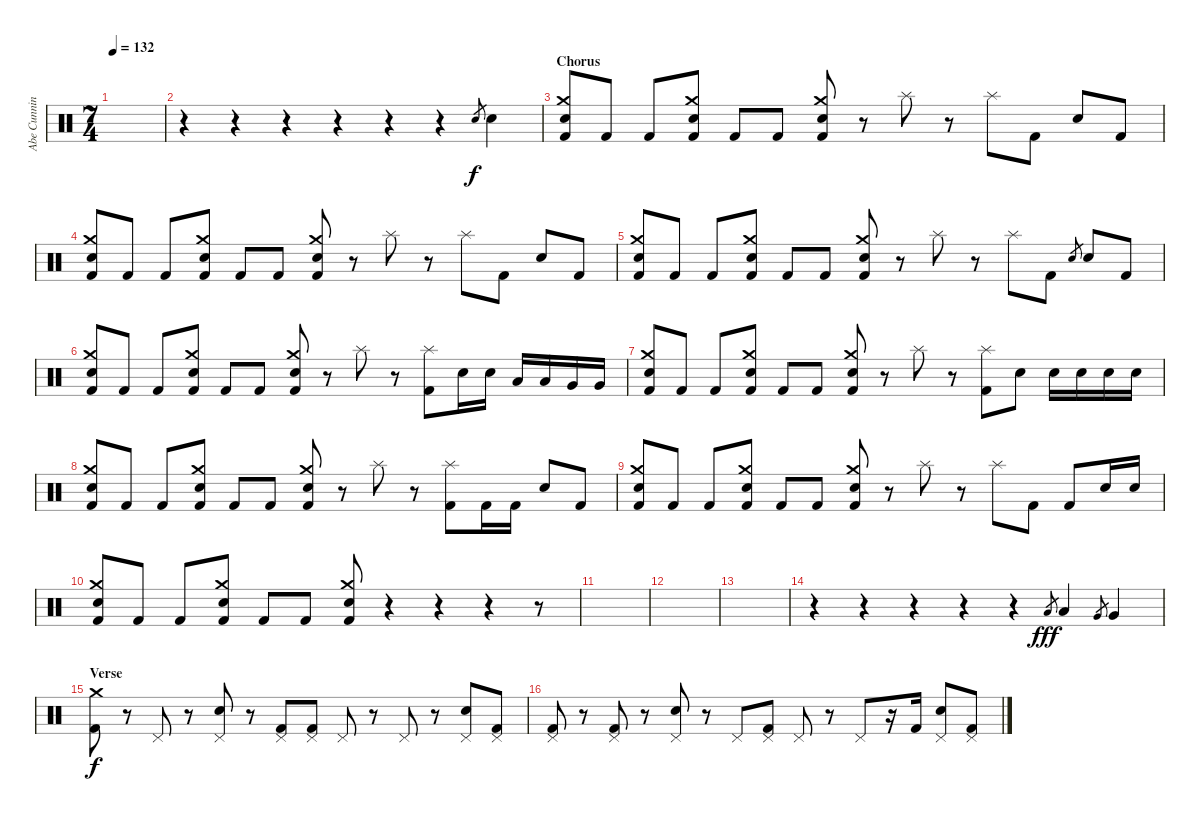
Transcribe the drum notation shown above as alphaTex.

\track ("Abe Cunningham" "Abe Cunnin") {instrument percussion}
\staff {score}
\articulation defaults
\ts (7 4)
\tempo 132
\clef neutral
\ks c
|
r.4 r.4 r.4 r.4 r.4 r.4 "Electric Snare (hit)".8{gr} "Electric Snare (hit)".4 |
\section ("" "Chorus")
("Crash medium (hit)" "Electric Snare (hit)" "Kick (hit) 2").8 "Kick (hit) 2".8 "Kick (hit) 2".8 ("Crash medium (hit)" "Electric Snare (hit)" "Kick (hit) 2").8 "Kick (hit) 2".8 "Kick (hit) 2".8 ("Crash medium (hit)" "Electric Snare (hit)" "Kick (hit) 2").8 r.8 "Splash (hit)".8 r.8 "Splash (hit)".8 "Kick (hit) 2".8 "Electric Snare (hit)".8 "Kick (hit) 2".8 |
("Crash medium (hit)" "Electric Snare (hit)" "Kick (hit) 2").8 "Kick (hit) 2".8 "Kick (hit) 2".8 ("Crash medium (hit)" "Electric Snare (hit)" "Kick (hit) 2").8 "Kick (hit) 2".8 "Kick (hit) 2".8 ("Crash medium (hit)" "Electric Snare (hit)" "Kick (hit) 2").8 r.8 "Splash (hit)".8 r.8 "Splash (hit)".8 "Kick (hit) 2".8 "Electric Snare (hit)".8 "Kick (hit) 2".8 |
("Crash medium (hit)" "Electric Snare (hit)" "Kick (hit) 2").8 "Kick (hit) 2".8 "Kick (hit) 2".8 ("Crash medium (hit)" "Electric Snare (hit)" "Kick (hit) 2").8 "Kick (hit) 2".8 "Kick (hit) 2".8 ("Crash medium (hit)" "Electric Snare (hit)" "Kick (hit) 2").8 r.8 "Splash (hit)".8 r.8 "Splash (hit)".8 "Kick (hit) 2".8 "Electric Snare (hit)".8{gr} "Electric Snare (hit)".8 "Kick (hit) 2".8 |
("Crash medium (hit)" "Electric Snare (hit)" "Kick (hit) 2").8 "Kick (hit) 2".8 "Kick (hit) 2".8 ("Crash medium (hit)" "Electric Snare (hit)" "Kick (hit) 2").8 "Kick (hit) 2".8 "Kick (hit) 2".8 ("Crash medium (hit)" "Electric Snare (hit)" "Kick (hit) 2").8 r.8 "Splash (hit)".8 r.8 ("Splash (hit)" "Kick (hit) 2").8 "Electric Snare (hit)".16 "Electric Snare (hit)".16 "Low Tom (hit)".16 "Low Tom (hit)".16 "Very Low Tom (hit)".16 "Very Low Tom (hit)".16 |
("Crash medium (hit)" "Electric Snare (hit)" "Kick (hit) 2").8 "Kick (hit) 2".8 "Kick (hit) 2".8 ("Crash medium (hit)" "Electric Snare (hit)" "Kick (hit) 2").8 "Kick (hit) 2".8 "Kick (hit) 2".8 ("Crash medium (hit)" "Electric Snare (hit)" "Kick (hit) 2").8 r.8 "Splash (hit)".8 r.8 ("Splash (hit)" "Kick (hit) 2").8 "Electric Snare (hit)".8 "Electric Snare (hit)".16 "Electric Snare (hit)".16 "Electric Snare (hit)".16 "Electric Snare (hit)".16 |
("Crash medium (hit)" "Electric Snare (hit)" "Kick (hit) 2").8 "Kick (hit) 2".8 "Kick (hit) 2".8 ("Crash medium (hit)" "Electric Snare (hit)" "Kick (hit) 2").8 "Kick (hit) 2".8 "Kick (hit) 2".8 ("Crash medium (hit)" "Electric Snare (hit)" "Kick (hit) 2").8 r.8 "Splash (hit)".8 r.8 ("Splash (hit)" "Kick (hit) 2").8 "Kick (hit) 2".16 "Kick (hit) 2".16 "Electric Snare (hit)".8 "Kick (hit) 2".8 |
("Crash medium (hit)" "Electric Snare (hit)" "Kick (hit) 2").8 "Kick (hit) 2".8 "Kick (hit) 2".8 ("Crash medium (hit)" "Electric Snare (hit)" "Kick (hit) 2").8 "Kick (hit) 2".8 "Kick (hit) 2".8 ("Crash medium (hit)" "Electric Snare (hit)" "Kick (hit) 2").8 r.8 "Splash (hit)".8 r.8 "Splash (hit)".8 "Kick (hit) 2".8 "Kick (hit) 2".8 "Electric Snare (hit)".16 "Electric Snare (hit)".16 |
("Crash medium (hit)" "Electric Snare (hit)" "Kick (hit) 2").8 "Kick (hit) 2".8 "Kick (hit) 2".8 ("Crash medium (hit)" "Electric Snare (hit)" "Kick (hit) 2").8 "Kick (hit) 2".8 "Kick (hit) 2".8 ("Crash medium (hit)" "Electric Snare (hit)" "Kick (hit) 2").8 r.4 r.4 r.4 r.8 |
|
|
|
r.4 r.4 r.4 r.4 r.4 "Low Tom (hit)".8{gr dy fff} "Low Tom (hit)".4 "Very Low Tom (hit)".8{gr} "Very Low Tom (hit)".4 |
\section ("" "Verse")
("Crash medium (hit)" "Kick (hit) 2").8{dy f} r.8 "Pedal Hi-Hat (hit)".8 r.8 ("Pedal Hi-Hat (hit)" "Electric Snare (hit)").8 r.8 ("Pedal Hi-Hat (hit)" "Kick (hit) 2").8 ("Pedal Hi-Hat (hit)" "Kick (hit) 2").8 "Pedal Hi-Hat (hit)".8 r.8 "Pedal Hi-Hat (hit)".8 r.8 ("Pedal Hi-Hat (hit)" "Electric Snare (hit)").8 ("Pedal Hi-Hat (hit)" "Kick (hit) 2").8 |
("Pedal Hi-Hat (hit)" "Kick (hit) 2").8 r.8 ("Pedal Hi-Hat (hit)" "Kick (hit) 2").8 r.8 ("Pedal Hi-Hat (hit)" "Electric Snare (hit)").8 r.8 "Pedal Hi-Hat (hit)".8 ("Pedal Hi-Hat (hit)" "Kick (hit) 2").8 "Pedal Hi-Hat (hit)".8 r.8 "Pedal Hi-Hat (hit)".8 r.16 "Kick (hit) 2".16 ("Pedal Hi-Hat (hit)" "Electric Snare (hit)").8 ("Pedal Hi-Hat (hit)" "Kick (hit) 2").8
